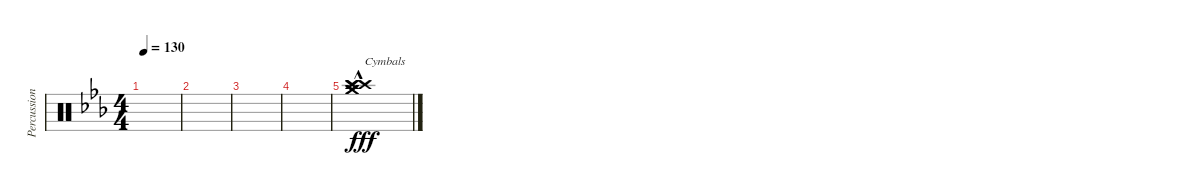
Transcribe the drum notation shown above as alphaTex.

\track ("Percussion" "Percussion") {instrument percussion}
\staff {score}
\articulation defaults
\ts (4 4)
\tempo 130
\clef neutral
\ks cminor
|
|
|
|
("Crash high (hit)"{hac} "Crash high (hit)"{hac} "Crash high (hit)"{hac} "Crash medium (hit)"{hac} "Crash medium (hit)"{hac}).1{txt "Cymbals" dy fff}
